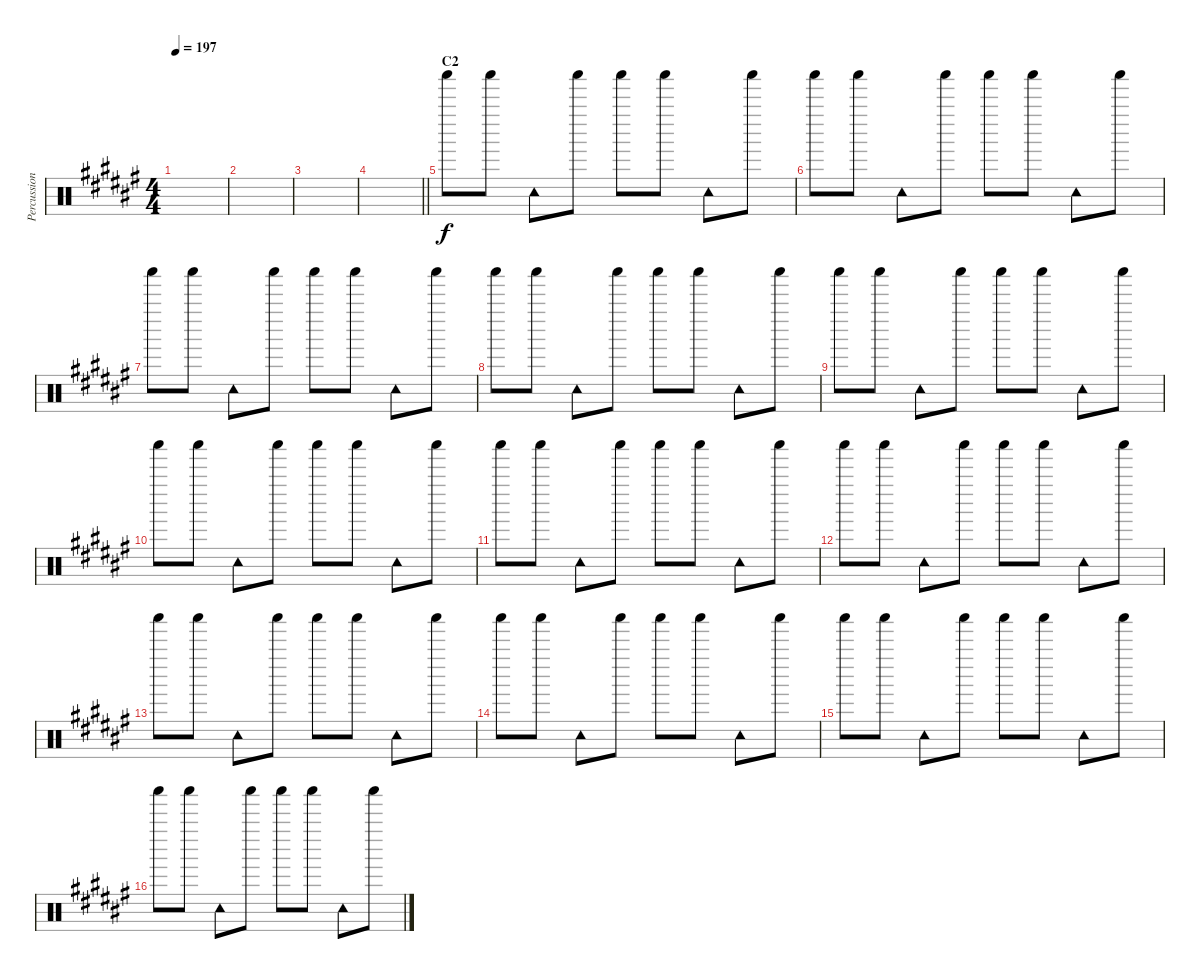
\track ("Percussion (Tainaka Ritsu)" "Percussion") {instrument percussion}
\staff {score}
\articulation defaults
\ts (4 4)
\tempo 197
\clef neutral
\ks f#
|
|
|
\barLineRight lightlight
|
\section ("" "C2")
"Shaker (hit)".8 "Shaker (hit)".8 "Tambourine (hit)".8 "Shaker (hit)".8 "Shaker (hit)".8 "Shaker (hit)".8 "Tambourine (hit)".8 "Shaker (hit)".8 |
"Shaker (hit)".8 "Shaker (hit)".8 "Tambourine (hit)".8 "Shaker (hit)".8 "Shaker (hit)".8 "Shaker (hit)".8 "Tambourine (hit)".8 "Shaker (hit)".8 |
"Shaker (hit)".8 "Shaker (hit)".8 "Tambourine (hit)".8 "Shaker (hit)".8 "Shaker (hit)".8 "Shaker (hit)".8 "Tambourine (hit)".8 "Shaker (hit)".8 |
"Shaker (hit)".8 "Shaker (hit)".8 "Tambourine (hit)".8 "Shaker (hit)".8 "Shaker (hit)".8 "Shaker (hit)".8 "Tambourine (hit)".8 "Shaker (hit)".8 |
"Shaker (hit)".8 "Shaker (hit)".8 "Tambourine (hit)".8 "Shaker (hit)".8 "Shaker (hit)".8 "Shaker (hit)".8 "Tambourine (hit)".8 "Shaker (hit)".8 |
"Shaker (hit)".8 "Shaker (hit)".8 "Tambourine (hit)".8 "Shaker (hit)".8 "Shaker (hit)".8 "Shaker (hit)".8 "Tambourine (hit)".8 "Shaker (hit)".8 |
"Shaker (hit)".8 "Shaker (hit)".8 "Tambourine (hit)".8 "Shaker (hit)".8 "Shaker (hit)".8 "Shaker (hit)".8 "Tambourine (hit)".8 "Shaker (hit)".8 |
"Shaker (hit)".8 "Shaker (hit)".8 "Tambourine (hit)".8 "Shaker (hit)".8 "Shaker (hit)".8 "Shaker (hit)".8 "Tambourine (hit)".8 "Shaker (hit)".8 |
"Shaker (hit)".8 "Shaker (hit)".8 "Tambourine (hit)".8 "Shaker (hit)".8 "Shaker (hit)".8 "Shaker (hit)".8 "Tambourine (hit)".8 "Shaker (hit)".8 |
"Shaker (hit)".8 "Shaker (hit)".8 "Tambourine (hit)".8 "Shaker (hit)".8 "Shaker (hit)".8 "Shaker (hit)".8 "Tambourine (hit)".8 "Shaker (hit)".8 |
"Shaker (hit)".8 "Shaker (hit)".8 "Tambourine (hit)".8 "Shaker (hit)".8 "Shaker (hit)".8 "Shaker (hit)".8 "Tambourine (hit)".8 "Shaker (hit)".8 |
"Shaker (hit)".8 "Shaker (hit)".8 "Tambourine (hit)".8 "Shaker (hit)".8 "Shaker (hit)".8 "Shaker (hit)".8 "Tambourine (hit)".8 "Shaker (hit)".8
